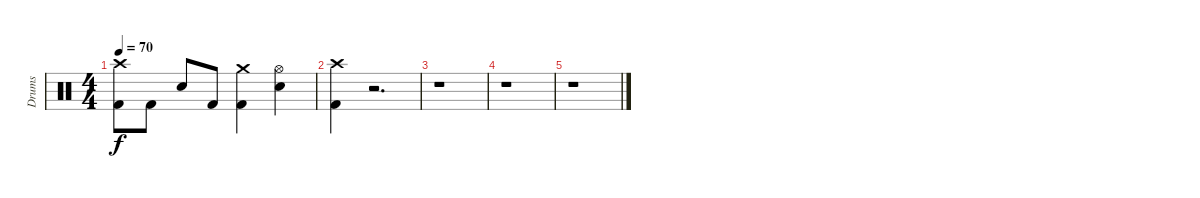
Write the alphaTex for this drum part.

\track ("Drums" "Drums") {instrument percussion}
\staff {score}
\articulation defaults
\ts (4 4)
\tempo 70
\clef neutral
\ks c
("Kick (hit) 2" "Crash high (hit)").8{dy f} "Kick (hit) 2".8 "Snare (hit) 2".8 "Kick (hit) 2".8 ("Kick (hit) 2" "Crash medium (hit)").4 ("Snare (hit) 2" "Hi-Hat (open)").4 |
("Kick (hit) 2" "Crash high (hit)").4 r.2{d} |
r.1 |
r.1 |
r.1
